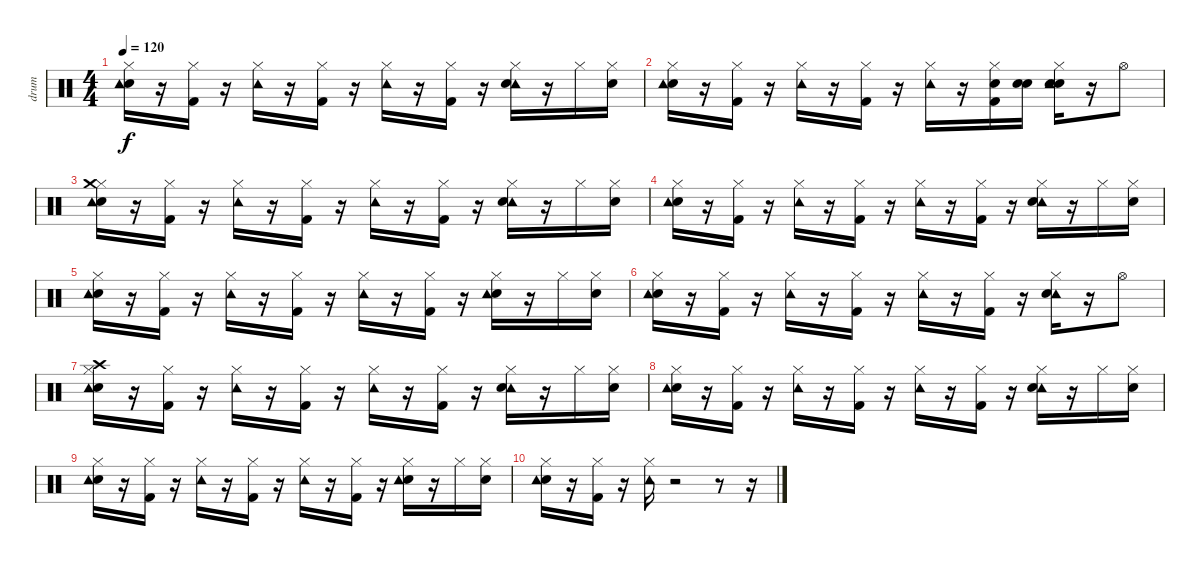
\track ("drum" "drum") {instrument percussion}
\staff {score}
\articulation defaults
\ts (4 4)
\tempo 120
\clef neutral
\ks c
("Snare (hit)" "Hi-Hat (closed)" "Tambourine (hit)").16{dy f} r.16 ("Hi-Hat (closed)" "Kick (hit) 2").16 r.16 ("Hi-Hat (closed)" "Tambourine (hit)").16 r.16 ("Hi-Hat (closed)" "Kick (hit) 2").16 r.16 ("Tambourine (hit)" "Hi-Hat (closed)").16 r.16 ("Kick (hit) 2" "Hi-Hat (closed)").16 r.16 ("Hi-Hat (closed)" "Tambourine (hit)" "Snare (hit) 2").16 r.16 "Hi-Hat (closed)".16 ("Snare (hit)" "Hi-Hat (closed)").16 |
("Snare (hit)" "Hi-Hat (closed)" "Tambourine (hit)").16 r.16 ("Hi-Hat (closed)" "Kick (hit) 2").16 r.16 ("Tambourine (hit)" "Hi-Hat (closed)").16 r.16 ("Hi-Hat (closed)" "Kick (hit) 2").16 r.16 ("Tambourine (hit)" "Hi-Hat (closed)").16 r.16 ("Kick (hit) 2" "Hi-Hat (closed)" "Snare (hit) 2").16 ("Snare (hit)" "Snare (hit) 2").16 ("Snare (hit)" "Tambourine (hit)" "Hi-Hat (closed)" "Snare (hit) 2").16 r.16 "Hi-Hat (open)".8 |
("Snare (hit)" "Hi-Hat (closed)" "Tambourine (hit)" "Crash medium (hit)").16 r.16 ("Hi-Hat (closed)" "Kick (hit) 2").16 r.16 ("Tambourine (hit)" "Hi-Hat (closed)").16 r.16 ("Kick (hit) 2" "Hi-Hat (closed)").16 r.16 ("Hi-Hat (closed)" "Tambourine (hit)").16 r.16 ("Hi-Hat (closed)" "Kick (hit) 2").16 r.16 ("Hi-Hat (closed)" "Tambourine (hit)" "Snare (hit) 2").16 r.16 "Hi-Hat (closed)".16 ("Snare (hit)" "Hi-Hat (closed)").16 |
("Snare (hit)" "Tambourine (hit)" "Hi-Hat (closed)").16 r.16 ("Hi-Hat (closed)" "Kick (hit) 2").16 r.16 ("Tambourine (hit)" "Hi-Hat (closed)").16 r.16 ("Hi-Hat (closed)" "Kick (hit) 2").16 r.16 ("Hi-Hat (closed)" "Tambourine (hit)").16 r.16 ("Hi-Hat (closed)" "Kick (hit) 2").16 r.16 ("Hi-Hat (closed)" "Tambourine (hit)" "Snare (hit) 2").16 r.16 "Hi-Hat (closed)".16 ("Snare (hit)" "Hi-Hat (closed)").16 |
("Snare (hit)" "Hi-Hat (closed)" "Tambourine (hit)").16 r.16 ("Kick (hit) 2" "Hi-Hat (closed)").16 r.16 ("Tambourine (hit)" "Hi-Hat (closed)").16 r.16 ("Hi-Hat (closed)" "Kick (hit) 2").16 r.16 ("Tambourine (hit)" "Hi-Hat (closed)").16 r.16 ("Hi-Hat (closed)" "Kick (hit) 2").16 r.16 ("Hi-Hat (closed)" "Snare (hit) 2" "Tambourine (hit)").16 r.16 "Hi-Hat (closed)".16 ("Snare (hit)" "Hi-Hat (closed)").16 |
("Snare (hit)" "Hi-Hat (closed)" "Tambourine (hit)").16 r.16 ("Hi-Hat (closed)" "Kick (hit) 2").16 r.16 ("Hi-Hat (closed)" "Tambourine (hit)").16 r.16 ("Kick (hit) 2" "Hi-Hat (closed)").16 r.16 ("Hi-Hat (closed)" "Tambourine (hit)").16 r.16 ("Hi-Hat (closed)" "Kick (hit) 2").16 r.16 ("Tambourine (hit)" "Hi-Hat (closed)" "Snare (hit) 2").16 r.16 "Hi-Hat (open)".8 |
("Snare (hit)" "Tambourine (hit)" "Hi-Hat (closed)" "Crash high (hit)").16 r.16 ("Hi-Hat (closed)" "Kick (hit) 2").16 r.16 ("Tambourine (hit)" "Hi-Hat (closed)").16 r.16 ("Kick (hit) 2" "Hi-Hat (closed)").16 r.16 ("Hi-Hat (closed)" "Tambourine (hit)").16 r.16 ("Kick (hit) 2" "Hi-Hat (closed)").16 r.16 ("Hi-Hat (closed)" "Tambourine (hit)" "Snare (hit) 2").16 r.16 "Hi-Hat (closed)".16 ("Snare (hit)" "Hi-Hat (closed)").16 |
("Snare (hit)" "Tambourine (hit)" "Hi-Hat (closed)").16 r.16 ("Kick (hit) 2" "Hi-Hat (closed)").16 r.16 ("Tambourine (hit)" "Hi-Hat (closed)").16 r.16 ("Kick (hit) 2" "Hi-Hat (closed)").16 r.16 ("Tambourine (hit)" "Hi-Hat (closed)").16 r.16 ("Hi-Hat (closed)" "Kick (hit) 2").16 r.16 ("Tambourine (hit)" "Snare (hit) 2" "Hi-Hat (closed)").16 r.16 "Hi-Hat (closed)".16 ("Snare (hit)" "Hi-Hat (closed)").16 |
("Snare (hit)" "Hi-Hat (closed)" "Tambourine (hit)").16 r.16 ("Kick (hit) 2" "Hi-Hat (closed)").16 r.16 ("Tambourine (hit)" "Hi-Hat (closed)").16 r.16 ("Kick (hit) 2" "Hi-Hat (closed)").16 r.16 ("Tambourine (hit)" "Hi-Hat (closed)").16 r.16 ("Kick (hit) 2" "Hi-Hat (closed)").16 r.16 ("Hi-Hat (closed)" "Snare (hit) 2" "Tambourine (hit)").16 r.16 "Hi-Hat (closed)".16 ("Snare (hit)" "Hi-Hat (closed)").16 |
("Snare (hit)" "Tambourine (hit)" "Hi-Hat (closed)").16 r.16 ("Hi-Hat (closed)" "Kick (hit) 2").16 r.16 ("Tambourine (hit)" "Hi-Hat (closed)").16 r.2 r.8 r.16
